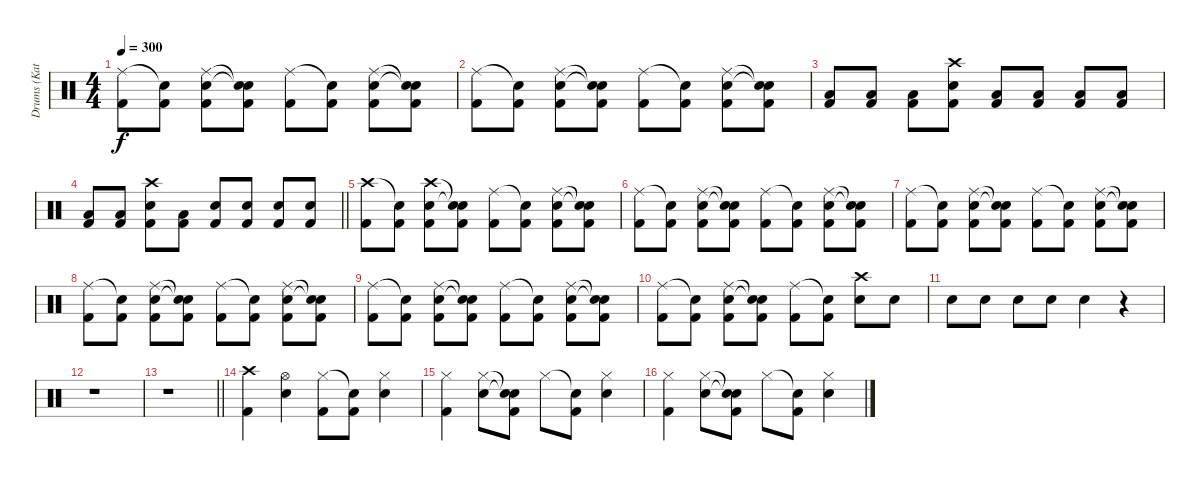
\track ("Drums (Katsuji)" "Drums (Kat") {instrument percussion}
\staff {score}
\articulation defaults
\ts (4 4)
\tempo 300
\clef neutral
\ks c
("Ride (middle)" "Kick (hit) 2").8{dy f} ("Snare (hit)"{t} "Kick (hit) 2").8 ("Ride (middle)" "Snare (hit) 2" "Kick (hit) 2").8 ("Snare (hit)"{t} "Snare (hit)"{t} "Kick (hit) 2").8 ("Ride (middle)" "Kick (hit) 2").8 ("Snare (hit)"{t} "Kick (hit) 2").8 ("Ride (middle)" "Snare (hit) 2" "Kick (hit) 2").8 ("Snare (hit)"{t} "Snare (hit)"{t} "Kick (hit) 2").8 |
("Ride (middle)" "Kick (hit) 2").8 ("Snare (hit)"{t} "Kick (hit) 2").8 ("Ride (middle)" "Snare (hit) 2" "Kick (hit) 2").8 ("Snare (hit)"{t} "Snare (hit)"{t} "Kick (hit) 2").8 ("Ride (middle)" "Kick (hit) 2").8 ("Snare (hit)"{t} "Kick (hit) 2").8 ("Ride (middle)" "Snare (hit) 2" "Kick (hit) 2").8 ("Snare (hit)"{t} "Snare (hit)"{t} "Kick (hit) 2").8 |
("Low Tom (hit)" "Kick (hit) 2").8 ("Low Tom (hit)" "Kick (hit) 2").8 ("Low Tom (hit)" "Kick (hit) 2").8 ("Crash high (hit)" "Snare (hit) 2" "Kick (hit) 2").8 ("Low Tom (hit)" "Kick (hit) 2").8 ("Low Tom (hit)" "Kick (hit) 2").8 ("Low Tom (hit)" "Kick (hit) 2").8 ("Low Tom (hit)" "Kick (hit) 2").8 |
\barLineRight lightlight
("Low Tom (hit)" "Kick (hit) 2").8 ("Low Tom (hit)" "Kick (hit) 2").8 ("Crash high (hit)" "Snare (hit) 2" "Kick (hit) 2").8 ("Low Tom (hit)" "Kick (hit) 2").8 ("Snare (hit) 2" "Kick (hit) 2").8 ("Snare (hit) 2" "Kick (hit) 2").8 ("Snare (hit) 2" "Kick (hit) 2").8 ("Snare (hit) 2" "Kick (hit) 2").8 |
("Crash high (hit)" "Kick (hit) 2").8 ("Snare (hit)"{t} "Kick (hit) 2").8 ("Crash high (hit)" "Snare (hit) 2" "Kick (hit) 2").8 ("Snare (hit)"{t} "Snare (hit)"{t} "Kick (hit) 2").8 ("Ride (middle)" "Kick (hit) 2").8 ("Snare (hit)"{t} "Kick (hit) 2").8 ("Ride (middle)" "Snare (hit) 2" "Kick (hit) 2").8 ("Snare (hit)"{t} "Snare (hit)"{t} "Kick (hit) 2").8 |
("Ride (middle)" "Kick (hit) 2").8 ("Snare (hit)"{t} "Kick (hit) 2").8 ("Ride (middle)" "Snare (hit) 2" "Kick (hit) 2").8 ("Snare (hit)"{t} "Snare (hit)"{t} "Kick (hit) 2").8 ("Ride (middle)" "Kick (hit) 2").8 ("Snare (hit)"{t} "Kick (hit) 2").8 ("Ride (middle)" "Snare (hit) 2" "Kick (hit) 2").8 ("Snare (hit)"{t} "Snare (hit)"{t} "Kick (hit) 2").8 |
("Ride (middle)" "Kick (hit) 2").8 ("Snare (hit)"{t} "Kick (hit) 2").8 ("Ride (middle)" "Snare (hit) 2" "Kick (hit) 2").8 ("Snare (hit)"{t} "Snare (hit)"{t} "Kick (hit) 2").8 ("Ride (middle)" "Kick (hit) 2").8 ("Snare (hit)"{t} "Kick (hit) 2").8 ("Ride (middle)" "Snare (hit) 2" "Kick (hit) 2").8 ("Snare (hit)"{t} "Snare (hit)"{t} "Kick (hit) 2").8 |
("Ride (middle)" "Kick (hit) 2").8 ("Snare (hit)"{t} "Kick (hit) 2").8 ("Ride (middle)" "Snare (hit) 2" "Kick (hit) 2").8 ("Snare (hit)"{t} "Snare (hit)"{t} "Kick (hit) 2").8 ("Ride (middle)" "Kick (hit) 2").8 ("Snare (hit)"{t} "Kick (hit) 2").8 ("Ride (middle)" "Snare (hit) 2" "Kick (hit) 2").8 ("Snare (hit)"{t} "Snare (hit)"{t} "Kick (hit) 2").8 |
("Ride (middle)" "Kick (hit) 2").8 ("Snare (hit)"{t} "Kick (hit) 2").8 ("Ride (middle)" "Snare (hit) 2" "Kick (hit) 2").8 ("Snare (hit)"{t} "Snare (hit)"{t} "Kick (hit) 2").8 ("Ride (middle)" "Kick (hit) 2").8 ("Snare (hit)"{t} "Kick (hit) 2").8 ("Ride (middle)" "Snare (hit) 2" "Kick (hit) 2").8 ("Snare (hit)"{t} "Snare (hit)"{t} "Kick (hit) 2").8 |
("Ride (middle)" "Kick (hit) 2").8 ("Snare (hit)"{t} "Kick (hit) 2").8 ("Ride (middle)" "Snare (hit) 2" "Kick (hit) 2").8 ("Snare (hit)"{t} "Snare (hit)"{t} "Kick (hit) 2").8 ("Ride (middle)" "Kick (hit) 2").8 ("Snare (hit)"{t} "Kick (hit) 2").8 ("Crash high (hit)" "Snare (hit) 2").8 "Snare (hit) 2".8 |
"Snare (hit) 2".8 "Snare (hit) 2".8 "Snare (hit) 2".8 "Snare (hit) 2".8 "Snare (hit) 2".4 r.4 |
r.1 |
\barLineRight lightlight
r.1 |
("Crash high (hit)" "Kick (hit) 2").4 ("Hi-Hat (open)" "Snare (hit) 2").4 ("Hi-Hat (closed)" "Kick (hit) 2").8 ("Snare (hit)"{t} "Kick (hit) 2").8 ("Hi-Hat (closed)" "Snare (hit) 2").4 |
("Hi-Hat (closed)" "Kick (hit) 2").4 ("Hi-Hat (closed)" "Snare (hit) 2").8 ("Snare (hit)"{t} "Snare (hit) 2"{t} "Kick (hit) 2").8 "Hi-Hat (closed)".8 ("Snare (hit)"{t} "Kick (hit) 2").8 ("Hi-Hat (closed)" "Snare (hit) 2").4 |
("Hi-Hat (closed)" "Kick (hit) 2").4 ("Hi-Hat (closed)" "Snare (hit) 2").8 ("Snare (hit)"{t} "Snare (hit)"{t} "Kick (hit) 2").8 "Hi-Hat (closed)".8 ("Snare (hit)"{t} "Kick (hit) 2").8 ("Hi-Hat (closed)" "Snare (hit) 2").4
